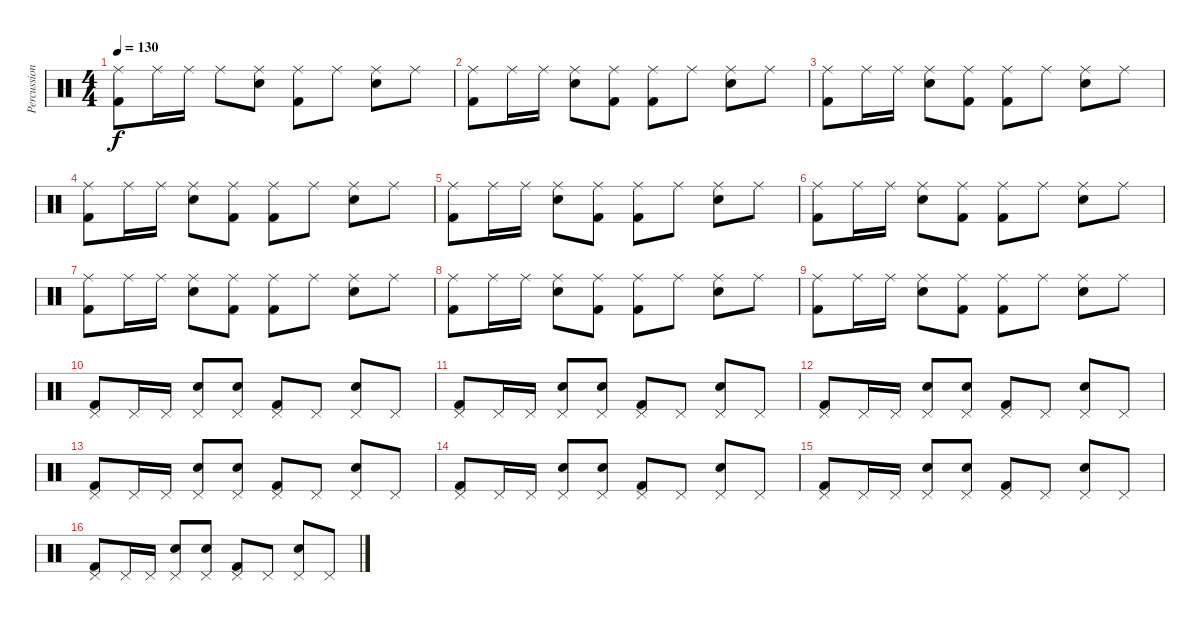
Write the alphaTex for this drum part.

\track ("Percussion" "Percussion") {instrument percussion}
\staff {score}
\articulation defaults
\ts (4 4)
\tempo 130
\clef neutral
\ks c
("Ride (middle)" "Kick (hit) 2").8{dy f} "Ride (middle)".16 "Ride (middle)".16 "Ride (middle)".8 ("Ride (middle)" "Snare (hit) 2").8 ("Ride (middle)" "Kick (hit) 2").8 "Ride (middle)".8 ("Ride (middle)" "Snare (hit) 2").8 "Ride (middle)".8 |
("Ride (middle)" "Kick (hit) 2").8 "Ride (middle)".16 "Ride (middle)".16 ("Ride (middle)" "Snare (hit) 2").8 ("Ride (middle)" "Kick (hit) 2").8 ("Ride (middle)" "Kick (hit) 2").8 "Ride (middle)".8 ("Ride (middle)" "Snare (hit) 2").8 "Ride (middle)".8 |
("Ride (middle)" "Kick (hit) 2").8 "Ride (middle)".16 "Ride (middle)".16 ("Ride (middle)" "Snare (hit) 2").8 ("Ride (middle)" "Kick (hit) 2").8 ("Ride (middle)" "Kick (hit) 2").8 "Ride (middle)".8 ("Ride (middle)" "Snare (hit) 2").8 "Ride (middle)".8 |
("Ride (middle)" "Kick (hit) 2").8 "Ride (middle)".16 "Ride (middle)".16 ("Ride (middle)" "Snare (hit) 2").8 ("Ride (middle)" "Kick (hit) 2").8 ("Ride (middle)" "Kick (hit) 2").8 "Ride (middle)".8 ("Ride (middle)" "Snare (hit) 2").8 "Ride (middle)".8 |
("Ride (middle)" "Kick (hit) 2").8 "Ride (middle)".16 "Ride (middle)".16 ("Ride (middle)" "Snare (hit) 2").8 ("Ride (middle)" "Kick (hit) 2").8 ("Ride (middle)" "Kick (hit) 2").8 "Ride (middle)".8 ("Ride (middle)" "Snare (hit) 2").8 "Ride (middle)".8 |
("Ride (middle)" "Kick (hit) 2").8 "Ride (middle)".16 "Ride (middle)".16 ("Ride (middle)" "Snare (hit) 2").8 ("Ride (middle)" "Kick (hit) 2").8 ("Ride (middle)" "Kick (hit) 2").8 "Ride (middle)".8 ("Ride (middle)" "Snare (hit) 2").8 "Ride (middle)".8 |
("Ride (middle)" "Kick (hit) 2").8 "Ride (middle)".16 "Ride (middle)".16 ("Ride (middle)" "Snare (hit) 2").8 ("Ride (middle)" "Kick (hit) 2").8 ("Ride (middle)" "Kick (hit) 2").8 "Ride (middle)".8 ("Ride (middle)" "Snare (hit) 2").8 "Ride (middle)".8 |
("Ride (middle)" "Kick (hit) 2").8 "Ride (middle)".16 "Ride (middle)".16 ("Ride (middle)" "Snare (hit) 2").8 ("Ride (middle)" "Kick (hit) 2").8 ("Ride (middle)" "Kick (hit) 2").8 "Ride (middle)".8 ("Ride (middle)" "Snare (hit) 2").8 "Ride (middle)".8 |
("Ride (middle)" "Kick (hit) 2").8 "Ride (middle)".16 "Ride (middle)".16 ("Ride (middle)" "Snare (hit) 2").8 ("Ride (middle)" "Kick (hit) 2").8 ("Ride (middle)" "Kick (hit) 2").8 "Ride (middle)".8 ("Ride (middle)" "Snare (hit) 2").8 "Ride (middle)".8 |
("Pedal Hi-Hat (hit)" "Kick (hit) 2").8 "Pedal Hi-Hat (hit)".16 "Pedal Hi-Hat (hit)".16 ("Pedal Hi-Hat (hit)" "Snare (hit) 2").8 ("Pedal Hi-Hat (hit)" "Snare (hit) 2").8 ("Pedal Hi-Hat (hit)" "Kick (hit) 2").8 "Pedal Hi-Hat (hit)".8 ("Pedal Hi-Hat (hit)" "Snare (hit) 2").8 "Pedal Hi-Hat (hit)".8 |
("Pedal Hi-Hat (hit)" "Kick (hit) 2").8 "Pedal Hi-Hat (hit)".16 "Pedal Hi-Hat (hit)".16 ("Pedal Hi-Hat (hit)" "Snare (hit) 2").8 ("Pedal Hi-Hat (hit)" "Snare (hit) 2").8 ("Pedal Hi-Hat (hit)" "Kick (hit) 2").8 "Pedal Hi-Hat (hit)".8 ("Pedal Hi-Hat (hit)" "Snare (hit) 2").8 "Pedal Hi-Hat (hit)".8 |
("Pedal Hi-Hat (hit)" "Kick (hit) 2").8 "Pedal Hi-Hat (hit)".16 "Pedal Hi-Hat (hit)".16 ("Pedal Hi-Hat (hit)" "Snare (hit) 2").8 ("Pedal Hi-Hat (hit)" "Snare (hit) 2").8 ("Pedal Hi-Hat (hit)" "Kick (hit) 2").8 "Pedal Hi-Hat (hit)".8 ("Pedal Hi-Hat (hit)" "Snare (hit) 2").8 "Pedal Hi-Hat (hit)".8 |
("Pedal Hi-Hat (hit)" "Kick (hit) 2").8 "Pedal Hi-Hat (hit)".16 "Pedal Hi-Hat (hit)".16 ("Pedal Hi-Hat (hit)" "Snare (hit) 2").8 ("Pedal Hi-Hat (hit)" "Snare (hit) 2").8 ("Pedal Hi-Hat (hit)" "Kick (hit) 2").8 "Pedal Hi-Hat (hit)".8 ("Pedal Hi-Hat (hit)" "Snare (hit) 2").8 "Pedal Hi-Hat (hit)".8 |
("Pedal Hi-Hat (hit)" "Kick (hit) 2").8 "Pedal Hi-Hat (hit)".16 "Pedal Hi-Hat (hit)".16 ("Pedal Hi-Hat (hit)" "Snare (hit) 2").8 ("Pedal Hi-Hat (hit)" "Snare (hit) 2").8 ("Pedal Hi-Hat (hit)" "Kick (hit) 2").8 "Pedal Hi-Hat (hit)".8 ("Pedal Hi-Hat (hit)" "Snare (hit) 2").8 "Pedal Hi-Hat (hit)".8 |
("Pedal Hi-Hat (hit)" "Kick (hit) 2").8 "Pedal Hi-Hat (hit)".16 "Pedal Hi-Hat (hit)".16 ("Pedal Hi-Hat (hit)" "Snare (hit) 2").8 ("Pedal Hi-Hat (hit)" "Snare (hit) 2").8 ("Pedal Hi-Hat (hit)" "Kick (hit) 2").8 "Pedal Hi-Hat (hit)".8 ("Pedal Hi-Hat (hit)" "Snare (hit) 2").8 "Pedal Hi-Hat (hit)".8 |
("Pedal Hi-Hat (hit)" "Kick (hit) 2").8 "Pedal Hi-Hat (hit)".16 "Pedal Hi-Hat (hit)".16 ("Pedal Hi-Hat (hit)" "Snare (hit) 2").8 ("Pedal Hi-Hat (hit)" "Snare (hit) 2").8 ("Pedal Hi-Hat (hit)" "Kick (hit) 2").8 "Pedal Hi-Hat (hit)".8 ("Pedal Hi-Hat (hit)" "Snare (hit) 2").8 "Pedal Hi-Hat (hit)".8
